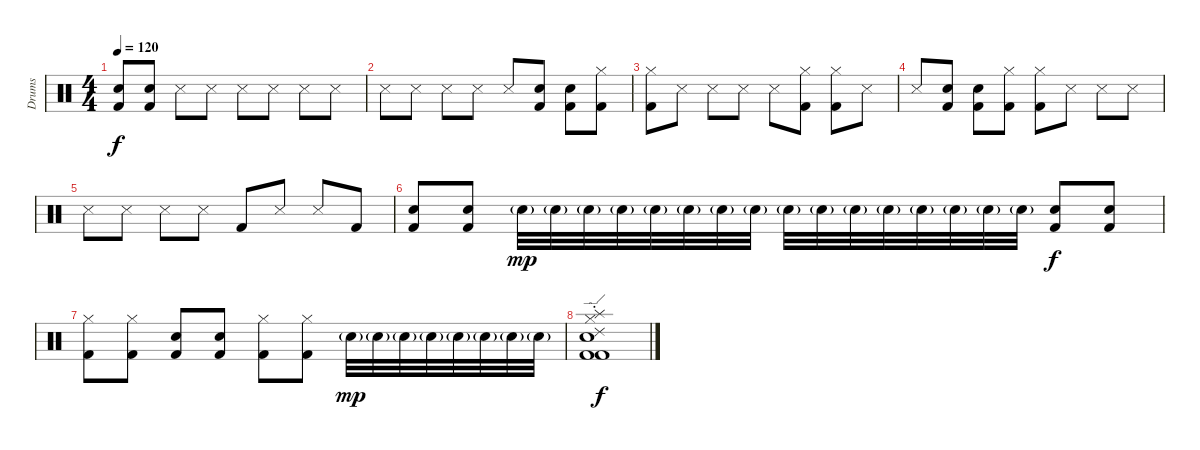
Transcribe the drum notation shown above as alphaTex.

\track ("Drums" "Drums") {instrument percussion}
\staff {score}
\articulation defaults
\ts (4 4)
\tempo 120
\clef neutral
\ks c
("Electric Snare (hit)" "Kick (hit) 2").8{dy f} ("Electric Snare (hit)" "Kick (hit) 2").8 "Snare (side stick) 3".8 "Snare (side stick) 3".8 "Snare (side stick) 3".8 "Snare (side stick) 3".8 "Snare (side stick) 3".8 "Snare (side stick) 3".8 |
"Snare (side stick) 3".8 "Snare (side stick) 3".8 "Snare (side stick) 3".8 "Snare (side stick) 3".8 "Snare (side stick) 3".8 ("Electric Snare (hit)" "Kick (hit) 2").8 ("Electric Snare (hit)" "Kick (hit) 2").8 ("Hi-Hat (closed)" "Kick (hit) 2").8 |
("Hi-Hat (closed)" "Kick (hit) 2").8 "Snare (side stick) 3".8 "Snare (side stick) 3".8 "Snare (side stick) 3".8 "Snare (side stick) 3".8 ("Hi-Hat (closed)" "Kick (hit) 2").8 ("Hi-Hat (closed)" "Kick (hit) 2").8 "Snare (side stick) 3".8 |
"Snare (side stick) 3".8 ("Electric Snare (hit)" "Kick (hit) 2").8 ("Electric Snare (hit)" "Kick (hit) 2").8 ("Hi-Hat (closed)" "Kick (hit) 2").8 ("Hi-Hat (closed)" "Kick (hit) 2").8 "Snare (side stick) 3".8 "Snare (side stick) 3".8 "Snare (side stick) 3".8 |
"Snare (side stick) 3".8 "Snare (side stick) 3".8 "Snare (side stick) 3".8 "Snare (side stick) 3".8 "Kick (hit) 2".8 "Snare (side stick) 3".8 "Snare (side stick) 3".8 "Kick (hit) 2".8 |
("Electric Snare (hit)" "Kick (hit) 2").8 ("Electric Snare (hit)" "Kick (hit) 2").8 "Snare (hit) 2"{g}.32{dy mp} "Electric Snare (hit)"{g}.32 "Snare (hit) 2"{g}.32 "Electric Snare (hit)"{g}.32 "Snare (hit) 2"{g}.32 "Electric Snare (hit)"{g}.32 "Snare (hit) 2"{g}.32 "Electric Snare (hit)"{g}.32 "Snare (hit) 2"{g}.32 "Electric Snare (hit)"{g}.32 "Snare (hit) 2"{g}.32 "Electric Snare (hit)"{g}.32 "Snare (hit) 2"{g}.32 "Electric Snare (hit)"{g}.32 "Snare (hit) 2"{g}.32 "Electric Snare (hit)"{g}.32 ("Electric Snare (hit)" "Kick (hit) 2").8{dy f} ("Electric Snare (hit)" "Kick (hit) 2").8 |
("Hi-Hat (closed)" "Kick (hit) 2").8 ("Hi-Hat (closed)" "Kick (hit) 2").8 ("Electric Snare (hit)" "Kick (hit) 2").8 ("Electric Snare (hit)" "Kick (hit) 2").8 ("Hi-Hat (closed)" "Kick (hit) 2").8 ("Hi-Hat (closed)" "Kick (hit) 2").8 "Snare (hit) 2"{g}.32{dy mp} "Electric Snare (hit)"{g}.32 "Snare (hit) 2"{g}.32 "Electric Snare (hit)"{g}.32 "Snare (hit) 2"{g}.32 "Electric Snare (hit)"{g}.32 "Snare (hit) 2"{g}.32 "Electric Snare (hit)"{g}.32 |
("Splash (hit)"{st} "Electric Snare (hit)"{st} "Hi-Hat (closed)"{st} "Kick (hit) 2"{st} "Kick (hit) 2"{st} "Ride (edge) 2"{st}).1{dy f}
